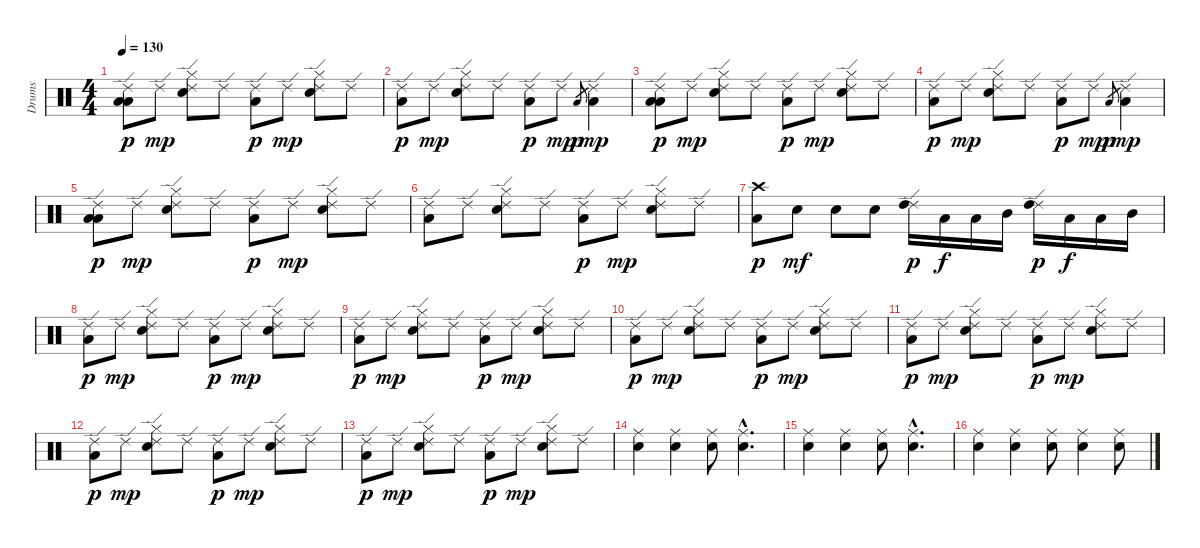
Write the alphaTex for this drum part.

\track ("Drums" "Drums") {instrument percussion}
\staff {score}
\articulation defaults
\ts (4 4)
\tempo 130
\clef neutral
\ks c
("Ride (edge) 2" "Low Tom (hit)" "Low Floor Tom (hit)").8{dy p} "Ride (edge) 2".8{dy mp} ("Ride (edge) 2" "Electric Snare (hit)" "Hi-Hat (closed)").8 "Ride (edge) 2".8 ("Ride (edge) 2" "Low Floor Tom (hit)").8{dy p} "Ride (edge) 2".8{dy mp} ("Ride (edge) 2" "Electric Snare (hit)" "Hi-Hat (closed)").8 "Ride (edge) 2".8 |
("Ride (edge) 2" "Low Floor Tom (hit)").8{dy p} "Ride (edge) 2".8{dy mp} ("Ride (edge) 2" "Electric Snare (hit)" "Hi-Hat (closed)").8 "Ride (edge) 2".8 ("Ride (edge) 2" "Low Floor Tom (hit)").8{dy p} "Ride (edge) 2".8{dy mp} "Low Floor Tom (hit)".8{gr dy p} ("Ride (edge) 2" "Low Tom (hit)").4{dy mp} |
("Ride (edge) 2" "Low Tom (hit)" "Low Floor Tom (hit)").8{dy p} "Ride (edge) 2".8{dy mp} ("Ride (edge) 2" "Electric Snare (hit)" "Hi-Hat (closed)").8 "Ride (edge) 2".8 ("Ride (edge) 2" "Low Floor Tom (hit)").8{dy p} "Ride (edge) 2".8{dy mp} ("Ride (edge) 2" "Electric Snare (hit)" "Hi-Hat (closed)").8 "Ride (edge) 2".8 |
("Ride (edge) 2" "Low Floor Tom (hit)").8{dy p} "Ride (edge) 2".8{dy mp} ("Ride (edge) 2" "Electric Snare (hit)" "Hi-Hat (closed)").8 "Ride (edge) 2".8 ("Ride (edge) 2" "Low Floor Tom (hit)").8{dy p} "Ride (edge) 2".8{dy mp} "Low Floor Tom (hit)".8{gr dy p} ("Ride (edge) 2" "Low Tom (hit)").4{dy mp} |
("Ride (edge) 2" "Low Tom (hit)" "Low Floor Tom (hit)").8{dy p} "Ride (edge) 2".8{dy mp} ("Ride (edge) 2" "Electric Snare (hit)" "Hi-Hat (closed)").8 "Ride (edge) 2".8 ("Ride (edge) 2" "Low Floor Tom (hit)").8{dy p} "Ride (edge) 2".8{dy mp} ("Ride (edge) 2" "Electric Snare (hit)" "Hi-Hat (closed)").8 "Ride (edge) 2".8 |
("Ride (edge) 2" "Low Floor Tom (hit)").8 "Ride (edge) 2".8 ("Ride (edge) 2" "Electric Snare (hit)" "Hi-Hat (closed)").8 "Ride (edge) 2".8 ("Ride (edge) 2" "Low Floor Tom (hit)").8{dy p} "Ride (edge) 2".8{dy mp} ("Ride (edge) 2" "Electric Snare (hit)" "Hi-Hat (closed)").8 "Ride (edge) 2".8 |
("Crash high (hit)" "Low Floor Tom (hit)").8{dy p} "Electric Snare (hit)".8{dy mf} "Electric Snare (hit)".8 "Electric Snare (hit)".8 ("Ride (edge) 2" "High Tom (hit)").16{dy p} "Low Tom (hit)".16{dy f} "Low Tom (hit)".16 "Mid Tom (hit)".16 ("Ride (edge) 2" "High Tom (hit)").16{dy p} "Low Tom (hit)".16{dy f} "Low Tom (hit)".16 "Mid Tom (hit)".16 |
("Ride (edge) 2" "Low Floor Tom (hit)").8{dy p} "Ride (edge) 2".8{dy mp} ("Ride (edge) 2" "Electric Snare (hit)" "Hi-Hat (closed)").8 "Ride (edge) 2".8 ("Ride (edge) 2" "Low Floor Tom (hit)").8{dy p} "Ride (edge) 2".8{dy mp} ("Ride (edge) 2" "Electric Snare (hit)" "Hi-Hat (closed)").8 "Ride (edge) 2".8 |
("Ride (edge) 2" "Low Floor Tom (hit)").8{dy p} "Ride (edge) 2".8{dy mp} ("Ride (edge) 2" "Electric Snare (hit)" "Hi-Hat (closed)").8 "Ride (edge) 2".8 ("Ride (edge) 2" "Low Floor Tom (hit)").8{dy p} "Ride (edge) 2".8{dy mp} ("Ride (edge) 2" "Electric Snare (hit)" "Hi-Hat (closed)").8 "Ride (edge) 2".8 |
("Ride (edge) 2" "Low Floor Tom (hit)").8{dy p} "Ride (edge) 2".8{dy mp} ("Ride (edge) 2" "Electric Snare (hit)" "Hi-Hat (closed)").8 "Ride (edge) 2".8 ("Ride (edge) 2" "Low Floor Tom (hit)").8{dy p} "Ride (edge) 2".8{dy mp} ("Ride (edge) 2" "Electric Snare (hit)" "Hi-Hat (closed)").8 "Ride (edge) 2".8 |
("Ride (edge) 2" "Low Floor Tom (hit)").8{dy p} "Ride (edge) 2".8{dy mp} ("Ride (edge) 2" "Electric Snare (hit)" "Hi-Hat (closed)").8 "Ride (edge) 2".8 ("Ride (edge) 2" "Low Floor Tom (hit)").8{dy p} "Ride (edge) 2".8{dy mp} ("Ride (edge) 2" "Electric Snare (hit)" "Hi-Hat (closed)").8 "Ride (edge) 2".8 |
("Ride (edge) 2" "Low Floor Tom (hit)").8{dy p} "Ride (edge) 2".8{dy mp} ("Ride (edge) 2" "Electric Snare (hit)" "Hi-Hat (closed)").8 "Ride (edge) 2".8 ("Ride (edge) 2" "Low Floor Tom (hit)").8{dy p} "Ride (edge) 2".8{dy mp} ("Ride (edge) 2" "Electric Snare (hit)" "Hi-Hat (closed)").8 "Ride (edge) 2".8 |
("Ride (edge) 2" "Low Floor Tom (hit)").8{dy p} "Ride (edge) 2".8{dy mp} ("Ride (edge) 2" "Electric Snare (hit)" "Hi-Hat (closed)").8 "Ride (edge) 2".8 ("Ride (edge) 2" "Low Floor Tom (hit)").8{dy p} "Ride (edge) 2".8{dy mp} ("Ride (edge) 2" "Electric Snare (hit)" "Hi-Hat (closed)").8 "Ride (edge) 2".8 |
("Ride (middle)" "Electric Snare (hit)").4 ("Ride (middle)" "Electric Snare (hit)").4 ("Ride (middle)" "Electric Snare (hit)").8 ("Ride (middle)"{hac} "Electric Snare (hit)"{hac}).4{d} |
("Ride (middle)" "Electric Snare (hit)").4 ("Ride (middle)" "Electric Snare (hit)").4 ("Ride (middle)" "Electric Snare (hit)").8 ("Ride (middle)"{hac} "Electric Snare (hit)"{hac}).4{d} |
("Ride (middle)" "Electric Snare (hit)").4 ("Ride (middle)" "Electric Snare (hit)").4 ("Ride (middle)" "Electric Snare (hit)").8 ("Ride (middle)" "Electric Snare (hit)").4 ("Ride (middle)" "Electric Snare (hit)").8
